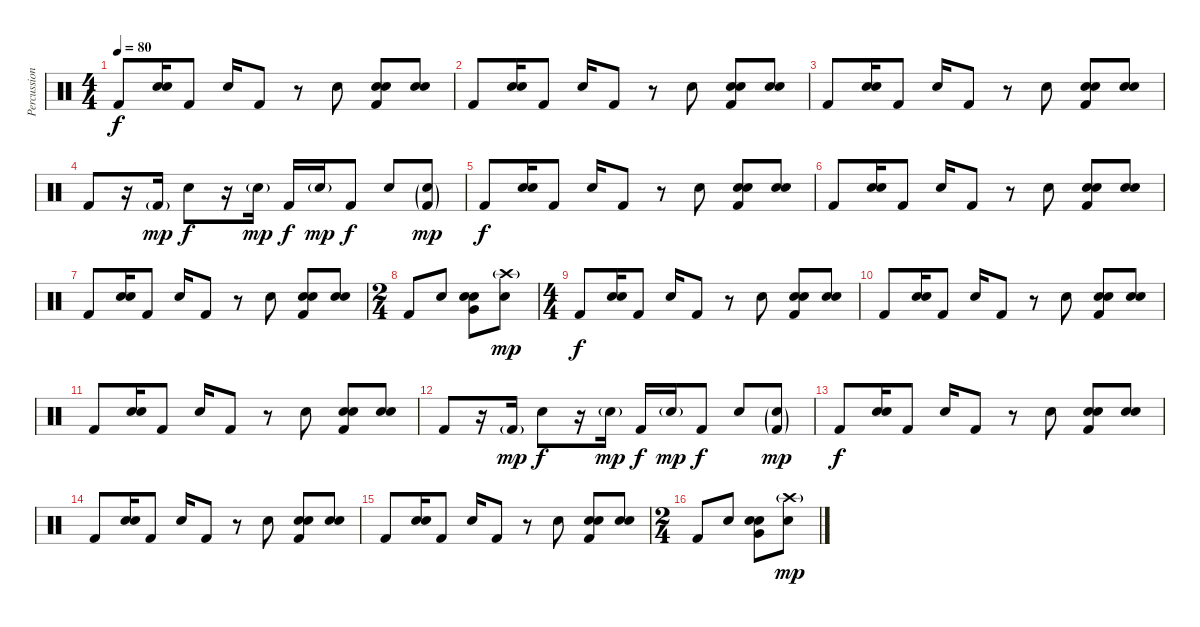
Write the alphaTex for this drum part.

\track ("Percussion" "Percussion") {instrument percussion}
\staff {score}
\articulation defaults
\ts (4 4)
\tempo 80
\clef neutral
\ks c "Kick (hit) 2".8{dy f}
("Hand Clap (hit)" "Snare (hit) 2").16 "Kick (hit) 2".8 "Snare (hit) 2".16 "Kick (hit) 2".8 r.8 "Snare (hit) 2".8 ("Hand Clap (hit)" "Snare (hit) 2" "Kick (hit) 2").8 ("Hand Clap (hit)" "Snare (hit) 2").8 |
"Kick (hit) 2".8 ("Hand Clap (hit)" "Snare (hit) 2").16 "Kick (hit) 2".8 "Snare (hit) 2".16 "Kick (hit) 2".8 r.8 "Snare (hit) 2".8 ("Hand Clap (hit)" "Snare (hit) 2" "Kick (hit) 2").8 ("Hand Clap (hit)" "Snare (hit) 2").8 |
"Kick (hit) 2".8 ("Hand Clap (hit)" "Snare (hit) 2").16 "Kick (hit) 2".8 "Snare (hit) 2".16 "Kick (hit) 2".8 r.8 "Snare (hit) 2".8 ("Hand Clap (hit)" "Snare (hit) 2" "Kick (hit) 2").8 ("Hand Clap (hit)" "Snare (hit) 2").8 |
"Kick (hit) 2".8 r.16 "Kick (hit) 2"{g}.16{dy mp} "Snare (hit) 2".8{dy f} r.16 "Snare (hit) 2"{g}.16{dy mp} "Kick (hit) 2".16{dy f} "Snare (hit) 2"{g}.16{dy mp} "Kick (hit) 2".8{dy f} "Snare (hit) 2".8 ("Snare (hit) 2"{g} "Kick (hit) 2"{g}).8{dy mp} |
"Kick (hit) 2".8{dy f} ("Hand Clap (hit)" "Snare (hit) 2").16 "Kick (hit) 2".8 "Snare (hit) 2".16 "Kick (hit) 2".8 r.8 "Snare (hit) 2".8 ("Hand Clap (hit)" "Snare (hit) 2" "Kick (hit) 2").8 ("Hand Clap (hit)" "Snare (hit) 2").8 |
"Kick (hit) 2".8 ("Hand Clap (hit)" "Snare (hit) 2").16 "Kick (hit) 2".8 "Snare (hit) 2".16 "Kick (hit) 2".8 r.8 "Snare (hit) 2".8 ("Hand Clap (hit)" "Snare (hit) 2" "Kick (hit) 2").8 ("Hand Clap (hit)" "Snare (hit) 2").8 |
"Kick (hit) 2".8 ("Hand Clap (hit)" "Snare (hit) 2").16 "Kick (hit) 2".8 "Snare (hit) 2".16 "Kick (hit) 2".8 r.8 "Snare (hit) 2".8 ("Hand Clap (hit)" "Snare (hit) 2" "Kick (hit) 2").8 ("Hand Clap (hit)" "Snare (hit) 2").8 |
\ts (2 4)
"Kick (hit) 2".8 "Snare (hit) 2".8 ("Hand Clap (hit)" "Snare (hit) 2" "Very Low Tom (hit)").8 ("Crash high (hit)"{g} "Snare (hit) 2").8{dy mp} |
\ts (4 4)
"Kick (hit) 2".8{dy f} ("Hand Clap (hit)" "Snare (hit) 2").16 "Kick (hit) 2".8 "Snare (hit) 2".16 "Kick (hit) 2".8 r.8 "Snare (hit) 2".8 ("Hand Clap (hit)" "Snare (hit) 2" "Kick (hit) 2").8 ("Hand Clap (hit)" "Snare (hit) 2").8 |
"Kick (hit) 2".8 ("Hand Clap (hit)" "Snare (hit) 2").16 "Kick (hit) 2".8 "Snare (hit) 2".16 "Kick (hit) 2".8 r.8 "Snare (hit) 2".8 ("Hand Clap (hit)" "Snare (hit) 2" "Kick (hit) 2").8 ("Hand Clap (hit)" "Snare (hit) 2").8 |
"Kick (hit) 2".8 ("Hand Clap (hit)" "Snare (hit) 2").16 "Kick (hit) 2".8 "Snare (hit) 2".16 "Kick (hit) 2".8 r.8 "Snare (hit) 2".8 ("Hand Clap (hit)" "Snare (hit) 2" "Kick (hit) 2").8 ("Hand Clap (hit)" "Snare (hit) 2").8 |
"Kick (hit) 2".8 r.16 "Kick (hit) 2"{g}.16{dy mp} "Snare (hit) 2".8{dy f} r.16 "Snare (hit) 2"{g}.16{dy mp} "Kick (hit) 2".16{dy f} "Snare (hit) 2"{g}.16{dy mp} "Kick (hit) 2".8{dy f} "Snare (hit) 2".8 ("Snare (hit) 2"{g} "Kick (hit) 2"{g}).8{dy mp} |
"Kick (hit) 2".8{dy f} ("Hand Clap (hit)" "Snare (hit) 2").16 "Kick (hit) 2".8 "Snare (hit) 2".16 "Kick (hit) 2".8 r.8 "Snare (hit) 2".8 ("Hand Clap (hit)" "Snare (hit) 2" "Kick (hit) 2").8 ("Hand Clap (hit)" "Snare (hit) 2").8 |
"Kick (hit) 2".8 ("Hand Clap (hit)" "Snare (hit) 2").16 "Kick (hit) 2".8 "Snare (hit) 2".16 "Kick (hit) 2".8 r.8 "Snare (hit) 2".8 ("Hand Clap (hit)" "Snare (hit) 2" "Kick (hit) 2").8 ("Hand Clap (hit)" "Snare (hit) 2").8 |
"Kick (hit) 2".8 ("Hand Clap (hit)" "Snare (hit) 2").16 "Kick (hit) 2".8 "Snare (hit) 2".16 "Kick (hit) 2".8 r.8 "Snare (hit) 2".8 ("Hand Clap (hit)" "Snare (hit) 2" "Kick (hit) 2").8 ("Hand Clap (hit)" "Snare (hit) 2").8 |
\ts (2 4)
"Kick (hit) 2".8 "Snare (hit) 2".8 ("Hand Clap (hit)" "Snare (hit) 2" "Very Low Tom (hit)").8 ("Crash high (hit)"{g} "Snare (hit) 2").8{dy mp}
